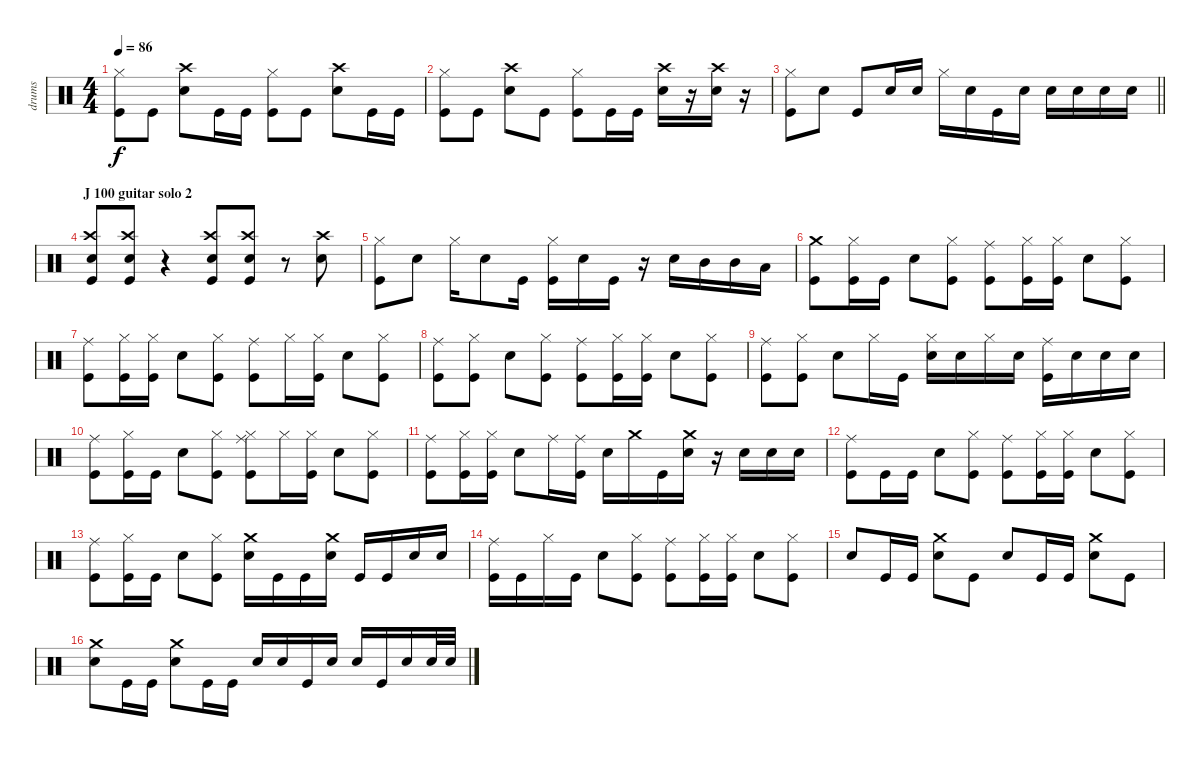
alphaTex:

\track ("drums" "drums") {instrument percussion}
\staff {score}
\articulation defaults
\ts (4 4)
\tempo 86
\clef neutral
\ks c
("Hi-Hat (closed)" "Kick (hit)").8{dy f} "Kick (hit)".8 ("Crash high (hit)" "Snare (hit) 2").8 "Kick (hit)".16 "Kick (hit)".16 ("Hi-Hat (closed)" "Kick (hit)").8 "Kick (hit)".8 ("Crash high (hit)" "Snare (hit) 2").8 "Kick (hit)".16 "Kick (hit)".16 |
("Hi-Hat (closed)" "Kick (hit)").8 "Kick (hit)".8 ("Crash high (hit)" "Snare (hit) 2").8 "Kick (hit)".8 ("Hi-Hat (closed)" "Kick (hit)").8 "Kick (hit)".16 "Kick (hit)".16 ("Crash high (hit)" "Snare (hit) 2").16 r.16 ("Crash high (hit)" "Snare (hit) 2").16 r.16 |
\barLineRight lightlight
("Hi-Hat (closed)" "Kick (hit)").8 "Snare (hit) 2".8 "Kick (hit)".8 "Snare (hit) 2".16 "Snare (hit) 2".16 "Hi-Hat (closed)".16 "Snare (hit) 2".16 "Kick (hit)".16 "Snare (hit) 2".16 "Snare (hit) 2".16 "Snare (hit) 2".16 "Snare (hit) 2".16 "Snare (hit) 2".16 |
\section ("" "J 100 guitar solo 2")
("Crash high (hit)" "Snare (hit) 2" "Kick (hit)").8 ("Crash high (hit)" "Snare (hit) 2" "Kick (hit)").8 r.4 ("Crash high (hit)" "Snare (hit) 2" "Kick (hit)").8 ("Crash high (hit)" "Snare (hit) 2" "Kick (hit)").8 r.8 ("Crash high (hit)" "Snare (hit) 2").8 |
("Hi-Hat (closed)" "Kick (hit)").8 "Snare (hit) 2".8 "Hi-Hat (closed)".16 "Snare (hit) 2".8 "Kick (hit)".16 ("Hi-Hat (closed)" "Kick (hit)").16 "Snare (hit) 2".16 "Kick (hit)".16 r.16 "Snare (hit) 2".16 "Mid Tom (hit)".16 "Mid Tom (hit)".16 "Low Tom (hit)".16 |
("Crash medium (hit)" "Kick (hit)").8 ("Hi-Hat (closed)" "Kick (hit)").16 "Kick (hit)".16 "Snare (hit) 2".8 ("Hi-Hat (closed)" "Kick (hit)").8 ("Ride (middle)" "Kick (hit)").8 ("Hi-Hat (closed)" "Kick (hit)").16 ("Hi-Hat (closed)" "Kick (hit)").16 "Snare (hit) 2".8 ("Hi-Hat (closed)" "Kick (hit)").8 |
("Ride (middle)" "Kick (hit)").8 ("Hi-Hat (closed)" "Kick (hit)").16 ("Hi-Hat (closed)" "Kick (hit)").16 "Snare (hit) 2".8 ("Hi-Hat (closed)" "Kick (hit)").8 ("Ride (middle)" "Kick (hit)").8 "Hi-Hat (closed)".16 ("Hi-Hat (closed)" "Kick (hit)").16 "Snare (hit) 2".8 ("Hi-Hat (closed)" "Kick (hit)").8 |
("Ride (middle)" "Kick (hit)").8 ("Hi-Hat (closed)" "Kick (hit)").8 "Snare (hit) 2".8 ("Hi-Hat (closed)" "Kick (hit)").8 ("Ride (middle)" "Kick (hit)").8 ("Hi-Hat (closed)" "Kick (hit)").16 ("Hi-Hat (closed)" "Kick (hit)").16 "Snare (hit) 2".8 ("Hi-Hat (closed)" "Kick (hit)").8 |
("Ride (middle)" "Kick (hit)").8 ("Hi-Hat (closed)" "Kick (hit)").8 "Snare (hit) 2".8 "Hi-Hat (closed)".16 "Kick (hit)".16 ("Snare (hit) 2" "Hi-Hat (closed)").16 "Snare (hit) 2".16 "Hi-Hat (closed)".16 "Snare (hit) 2".16 ("Ride (middle)" "Kick (hit)").16 "Snare (hit) 2".16 "Snare (hit) 2".16 "Snare (hit) 2".16 |
("Ride (middle)" "Kick (hit)").8 ("Hi-Hat (closed)" "Kick (hit)").16 "Kick (hit)".16 "Snare (hit) 2".8 ("Hi-Hat (closed)" "Kick (hit)").8 ("Ride (middle)" "Hi-Hat (closed)" "Kick (hit)").8 "Hi-Hat (closed)".16 ("Hi-Hat (closed)" "Kick (hit)").16 "Snare (hit) 2".8 ("Hi-Hat (closed)" "Kick (hit)").8 |
("Ride (middle)" "Kick (hit)").8 ("Hi-Hat (closed)" "Kick (hit)").16 ("Hi-Hat (closed)" "Kick (hit)").16 "Snare (hit) 2".8 "Ride (middle)".16 ("Ride (middle)" "Kick (hit)").16 "Snare (hit) 2".16 "Crash medium (hit)".16 "Kick (hit)".16 ("Crash medium (hit)" "Snare (hit) 2").16 r.16 "Snare (hit) 2".16 "Snare (hit) 2".16 "Snare (hit) 2".16 |
("Ride (middle)" "Kick (hit)").8 "Kick (hit)".16 "Kick (hit)".16 "Snare (hit) 2".8 ("Hi-Hat (closed)" "Kick (hit)").8 ("Ride (middle)" "Kick (hit)").8 ("Hi-Hat (closed)" "Kick (hit)").16 ("Hi-Hat (closed)" "Kick (hit)").16 "Snare (hit) 2".8 ("Hi-Hat (closed)" "Kick (hit)").8 |
("Ride (middle)" "Kick (hit)").8 ("Hi-Hat (closed)" "Kick (hit)").16 "Kick (hit)".16 "Snare (hit) 2".8 ("Hi-Hat (closed)" "Kick (hit)").8 ("Crash medium (hit)" "Snare (hit) 2").16 "Kick (hit)".16 "Kick (hit)".16 ("Crash medium (hit)" "Snare (hit) 2").16 "Kick (hit)".16 "Kick (hit)".16 "Snare (hit) 2".16 "Snare (hit) 2".16 |
("Ride (middle)" "Kick (hit)").16 "Kick (hit)".16 "Hi-Hat (closed)".16 "Kick (hit)".16 "Snare (hit) 2".8 ("Hi-Hat (closed)" "Kick (hit)").8 ("Ride (middle)" "Kick (hit)").8 ("Hi-Hat (closed)" "Kick (hit)").16 ("Hi-Hat (closed)" "Kick (hit)").16 "Snare (hit) 2".8 ("Hi-Hat (closed)" "Kick (hit)").8 |
"Snare (hit) 2".8 "Kick (hit)".16 "Kick (hit)".16 ("Crash medium (hit)" "Snare (hit) 2").8 "Kick (hit)".8 "Snare (hit) 2".8 "Kick (hit)".16 "Kick (hit)".16 ("Crash medium (hit)" "Snare (hit) 2").8 "Kick (hit)".8 |
("Crash medium (hit)" "Snare (hit) 2").8 "Kick (hit)".16 "Kick (hit)".16 ("Crash medium (hit)" "Snare (hit) 2").8 "Kick (hit)".16 "Kick (hit)".16 "Snare (hit) 2".16 "Snare (hit) 2".16 "Kick (hit)".16 "Snare (hit) 2".16 "Snare (hit) 2".16 "Kick (hit)".16 "Snare (hit) 2".16 "Snare (hit) 2".32 "Snare (hit) 2".32
